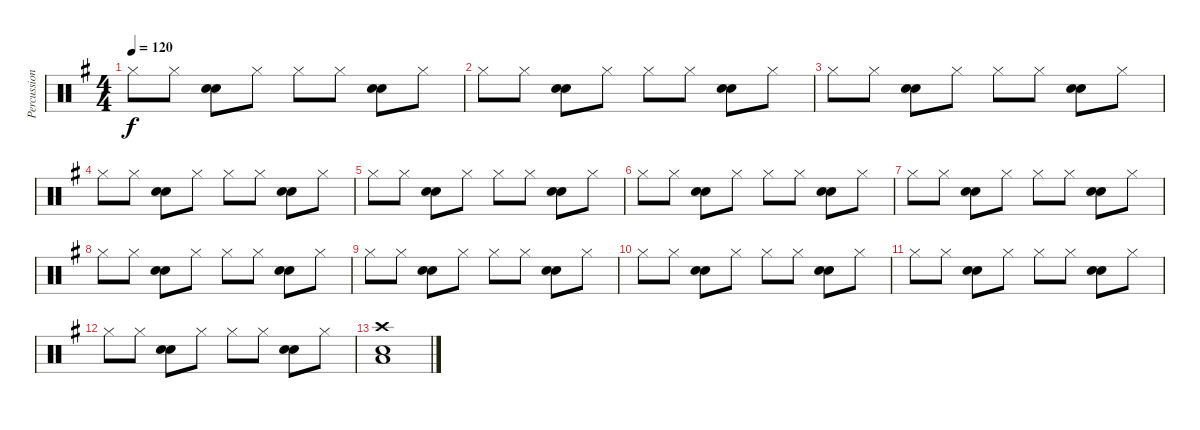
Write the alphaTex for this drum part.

\track ("Percussions" "Percussion") {instrument percussion}
\staff {score}
\articulation defaults
\ts (4 4)
\tempo 120
\clef neutral
\ks g "Hi-Hat (closed)".8{dy f} "Hi-Hat (closed)".8
("Snare (hit) 2" "Electric Snare (hit)").8 "Hi-Hat (closed)".8 "Hi-Hat (closed)".8 "Hi-Hat (closed)".8 ("Snare (hit) 2" "Electric Snare (hit)").8 "Hi-Hat (closed)".8 |
"Hi-Hat (closed)".8 "Hi-Hat (closed)".8 ("Snare (hit) 2" "Electric Snare (hit)").8 "Hi-Hat (closed)".8 "Hi-Hat (closed)".8 "Hi-Hat (closed)".8 ("Snare (hit) 2" "Electric Snare (hit)").8 "Hi-Hat (closed)".8 |
"Hi-Hat (closed)".8 "Hi-Hat (closed)".8 ("Snare (hit) 2" "Electric Snare (hit)").8 "Hi-Hat (closed)".8 "Hi-Hat (closed)".8 "Hi-Hat (closed)".8 ("Snare (hit) 2" "Electric Snare (hit)").8 "Hi-Hat (closed)".8 |
"Hi-Hat (closed)".8 "Hi-Hat (closed)".8 ("Snare (hit) 2" "Electric Snare (hit)").8 "Hi-Hat (closed)".8 "Hi-Hat (closed)".8 "Hi-Hat (closed)".8 ("Snare (hit) 2" "Electric Snare (hit)").8 "Hi-Hat (closed)".8 |
"Hi-Hat (closed)".8 "Hi-Hat (closed)".8 ("Snare (hit) 2" "Electric Snare (hit)").8 "Hi-Hat (closed)".8 "Hi-Hat (closed)".8 "Hi-Hat (closed)".8 ("Snare (hit) 2" "Electric Snare (hit)").8 "Hi-Hat (closed)".8 |
"Hi-Hat (closed)".8 "Hi-Hat (closed)".8 ("Snare (hit) 2" "Electric Snare (hit)").8 "Hi-Hat (closed)".8 "Hi-Hat (closed)".8 "Hi-Hat (closed)".8 ("Snare (hit) 2" "Electric Snare (hit)").8 "Hi-Hat (closed)".8 |
"Hi-Hat (closed)".8 "Hi-Hat (closed)".8 ("Snare (hit) 2" "Electric Snare (hit)").8 "Hi-Hat (closed)".8 "Hi-Hat (closed)".8 "Hi-Hat (closed)".8 ("Snare (hit) 2" "Electric Snare (hit)").8 "Hi-Hat (closed)".8 |
"Hi-Hat (closed)".8 "Hi-Hat (closed)".8 ("Snare (hit) 2" "Electric Snare (hit)").8 "Hi-Hat (closed)".8 "Hi-Hat (closed)".8 "Hi-Hat (closed)".8 ("Snare (hit) 2" "Electric Snare (hit)").8 "Hi-Hat (closed)".8 |
"Hi-Hat (closed)".8 "Hi-Hat (closed)".8 ("Snare (hit) 2" "Electric Snare (hit)").8 "Hi-Hat (closed)".8 "Hi-Hat (closed)".8 "Hi-Hat (closed)".8 ("Snare (hit) 2" "Electric Snare (hit)").8 "Hi-Hat (closed)".8 |
"Hi-Hat (closed)".8 "Hi-Hat (closed)".8 ("Snare (hit) 2" "Electric Snare (hit)").8 "Hi-Hat (closed)".8 "Hi-Hat (closed)".8 "Hi-Hat (closed)".8 ("Snare (hit) 2" "Electric Snare (hit)").8 "Hi-Hat (closed)".8 |
"Hi-Hat (closed)".8 "Hi-Hat (closed)".8 ("Snare (hit) 2" "Electric Snare (hit)").8 "Hi-Hat (closed)".8 "Hi-Hat (closed)".8 "Hi-Hat (closed)".8 ("Snare (hit) 2" "Electric Snare (hit)").8 "Hi-Hat (closed)".8 |
"Hi-Hat (closed)".8 "Hi-Hat (closed)".8 ("Snare (hit) 2" "Electric Snare (hit)").8 "Hi-Hat (closed)".8 "Hi-Hat (closed)".8 "Hi-Hat (closed)".8 ("Snare (hit) 2" "Electric Snare (hit)").8 "Hi-Hat (closed)".8 |
("Low Floor Tom (hit)" "Crash high (hit)" "Snare (hit) 2").1
